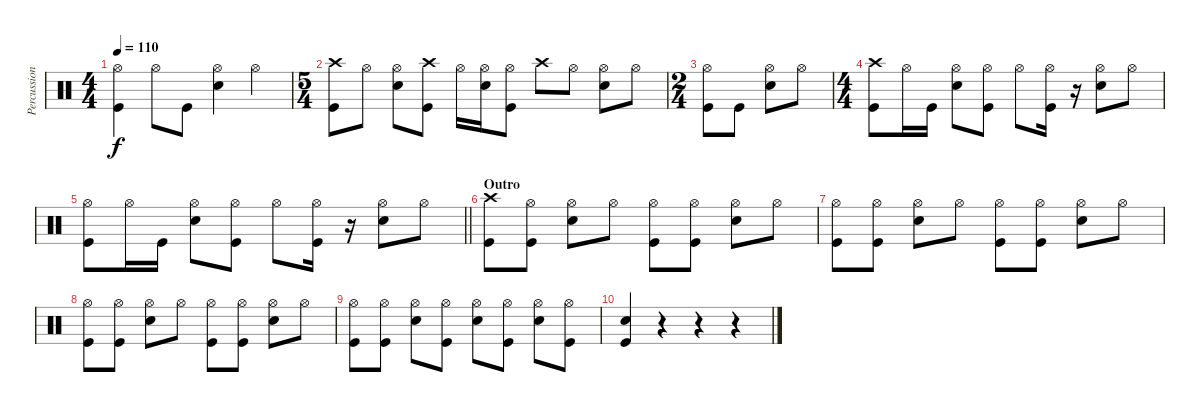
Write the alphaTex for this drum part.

\track ("Percussion" "Percussion") {instrument percussion}
\staff {score}
\articulation defaults
\ts (4 4)
\tempo 110
\clef neutral
\ks c
("Hi-Hat (open)" "Kick (hit)").4{dy f} "Hi-Hat (open)".8 "Kick (hit)".8 ("Hi-Hat (open)" "Snare (hit) 2").4 "Hi-Hat (open)".4 |
\ts (5 4)
("Crash high (hit)" "Kick (hit)").8 "Hi-Hat (open)".8 ("Hi-Hat (open)" "Snare (hit) 2").8 ("Crash high (hit)" "Kick (hit)").8 "Hi-Hat (open)".16 ("Hi-Hat (open)" "Snare (hit) 2").16 ("Hi-Hat (open)" "Kick (hit)").8 "Crash high (hit)".8 "Hi-Hat (open)".8 ("Hi-Hat (open)" "Snare (hit) 2").8 "Hi-Hat (open)".8 |
\ts (2 4)
("Hi-Hat (open)" "Kick (hit)").8 "Kick (hit)".8 ("Hi-Hat (open)" "Snare (hit) 2").8 "Hi-Hat (open)".8 |
\ts (4 4)
("Crash high (hit)" "Kick (hit)").8 "Hi-Hat (open)".16 "Kick (hit)".16 ("Hi-Hat (open)" "Snare (hit) 2").8 ("Hi-Hat (open)" "Kick (hit)").8 "Hi-Hat (open)".8 ("Hi-Hat (open)" "Kick (hit)").16 r.16 ("Hi-Hat (open)" "Snare (hit) 2").8 "Hi-Hat (open)".8 |
\barLineRight lightlight
("Hi-Hat (open)" "Kick (hit)").8 "Hi-Hat (open)".16 "Kick (hit)".16 ("Hi-Hat (open)" "Snare (hit) 2").8 ("Hi-Hat (open)" "Kick (hit)").8 "Hi-Hat (open)".8 ("Hi-Hat (open)" "Kick (hit)").16 r.16 ("Hi-Hat (open)" "Snare (hit) 2").8 "Hi-Hat (open)".8 |
\section ("" "Outro")
("Crash high (hit)" "Kick (hit)").8 ("Hi-Hat (open)" "Kick (hit)").8 ("Hi-Hat (open)" "Snare (hit) 2").8 "Hi-Hat (open)".8 ("Hi-Hat (open)" "Kick (hit)").8 ("Hi-Hat (open)" "Kick (hit)").8 ("Hi-Hat (open)" "Snare (hit) 2").8 "Hi-Hat (open)".8 |
("Hi-Hat (open)" "Kick (hit)").8 ("Hi-Hat (open)" "Kick (hit)").8 ("Hi-Hat (open)" "Snare (hit) 2").8 "Hi-Hat (open)".8 ("Hi-Hat (open)" "Kick (hit)").8 ("Hi-Hat (open)" "Kick (hit)").8 ("Hi-Hat (open)" "Snare (hit) 2").8 "Hi-Hat (open)".8 |
("Hi-Hat (open)" "Kick (hit)").8 ("Hi-Hat (open)" "Kick (hit)").8 ("Hi-Hat (open)" "Snare (hit) 2").8 "Hi-Hat (open)".8 ("Hi-Hat (open)" "Kick (hit)").8 ("Hi-Hat (open)" "Kick (hit)").8 ("Hi-Hat (open)" "Snare (hit) 2").8 "Hi-Hat (open)".8 |
("Hi-Hat (open)" "Kick (hit)").8 ("Hi-Hat (open)" "Kick (hit)").8 ("Hi-Hat (open)" "Snare (hit) 2").8 ("Hi-Hat (open)" "Kick (hit)").8 ("Hi-Hat (open)" "Snare (hit) 2").8 ("Hi-Hat (open)" "Kick (hit)").8 ("Hi-Hat (open)" "Snare (hit) 2").8 ("Hi-Hat (open)" "Kick (hit)").8 |
("Snare (hit) 2" "Kick (hit)").4 r.4 r.4 r.4
